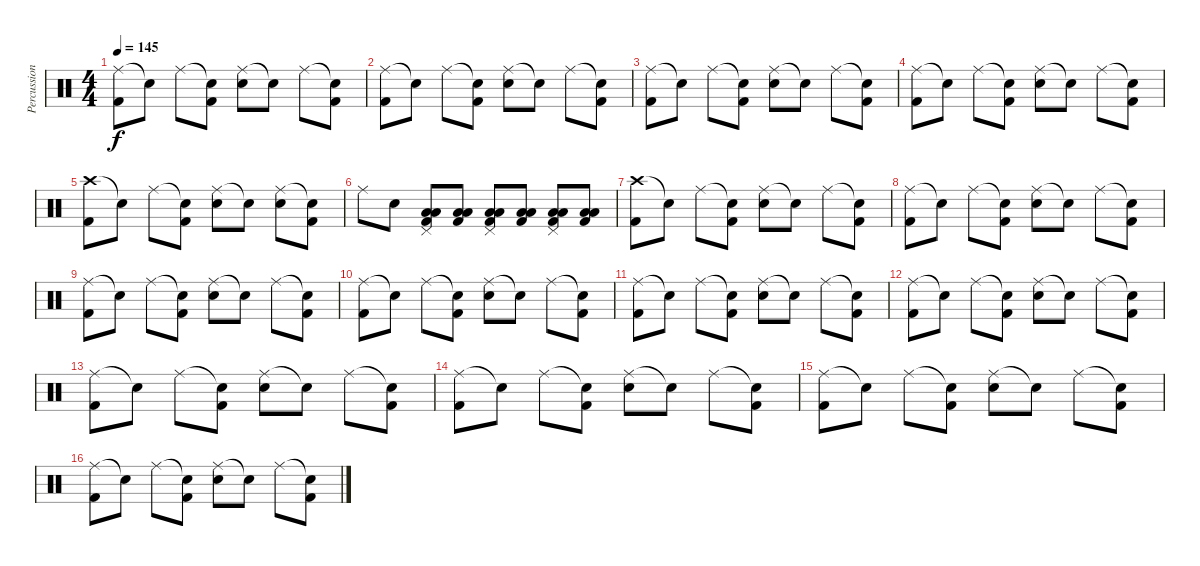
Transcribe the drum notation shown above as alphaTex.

\track ("Percussion" "Percussion") {instrument percussion}
\staff {score}
\articulation defaults
\ts (4 4)
\tempo 145
\clef neutral
\ks c
("Ride (middle)" "Kick (hit) 2").8{dy f} "Snare (hit)"{t}.8 "Ride (middle)".8 ("Snare (hit)"{t} "Kick (hit) 2").8 ("Ride (middle)" "Electric Snare (hit)").8 "Snare (hit)"{t}.8 "Ride (middle)".8 ("Snare (hit)"{t} "Kick (hit) 2").8 |
("Ride (middle)" "Kick (hit) 2").8 "Snare (hit)"{t}.8 "Ride (middle)".8 ("Snare (hit)"{t} "Kick (hit) 2").8 ("Ride (middle)" "Electric Snare (hit)").8 "Snare (hit)"{t}.8 "Ride (middle)".8 ("Snare (hit)"{t} "Kick (hit) 2").8 |
("Ride (middle)" "Kick (hit) 2").8 "Snare (hit)"{t}.8 "Ride (middle)".8 ("Snare (hit)"{t} "Kick (hit) 2").8 ("Ride (middle)" "Electric Snare (hit)").8 "Snare (hit)"{t}.8 "Ride (middle)".8 ("Snare (hit)"{t} "Kick (hit) 2").8 |
("Ride (middle)" "Kick (hit) 2").8 "Snare (hit)"{t}.8 "Ride (middle)".8 ("Snare (hit)"{t} "Kick (hit) 2").8 ("Ride (middle)" "Electric Snare (hit)").8 "Snare (hit)"{t}.8 "Ride (middle)".8 ("Snare (hit)"{t} "Kick (hit) 2").8 |
("Crash high (hit)" "Kick (hit) 2").8 "Snare (hit)"{t}.8 "Ride (middle)".8 ("Snare (hit)"{t} "Kick (hit) 2").8 ("Ride (middle)" "Electric Snare (hit)").8 "Snare (hit)"{t}.8 ("Ride (middle)" "Electric Snare (hit)").8 ("Snare (hit)"{t} "Kick (hit) 2").8 |
"Ride (middle)".8 "Electric Snare (hit)".8 ("Pedal Hi-Hat (hit)" "Low Tom (hit)" "Low Floor Tom (hit)" "Kick (hit) 2").8 ("Low Tom (hit)" "Low Floor Tom (hit)" "Kick (hit) 2").8 ("Pedal Hi-Hat (hit)" "Low Tom (hit)" "Low Floor Tom (hit)" "Kick (hit) 2").8 ("Low Tom (hit)" "Low Floor Tom (hit)" "Kick (hit) 2").8 ("Pedal Hi-Hat (hit)" "Low Tom (hit)" "Low Floor Tom (hit)" "Kick (hit) 2").8 ("Low Tom (hit)" "Low Floor Tom (hit)" "Kick (hit) 2").8 |
("Crash high (hit)" "Kick (hit) 2").8 "Snare (hit)"{t}.8 "Ride (middle)".8 ("Snare (hit)"{t} "Kick (hit) 2").8 ("Ride (middle)" "Electric Snare (hit)").8 "Snare (hit)"{t}.8 "Ride (middle)".8 ("Snare (hit)"{t} "Kick (hit) 2").8 |
("Ride (middle)" "Kick (hit) 2").8 "Snare (hit)"{t}.8 "Ride (middle)".8 ("Snare (hit)"{t} "Kick (hit) 2").8 ("Ride (middle)" "Electric Snare (hit)").8 "Snare (hit)"{t}.8 "Ride (middle)".8 ("Snare (hit)"{t} "Kick (hit) 2").8 |
("Ride (middle)" "Kick (hit) 2").8 "Snare (hit)"{t}.8 "Ride (middle)".8 ("Snare (hit)"{t} "Kick (hit) 2").8 ("Ride (middle)" "Electric Snare (hit)").8 "Snare (hit)"{t}.8 "Ride (middle)".8 ("Snare (hit)"{t} "Kick (hit) 2").8 |
("Ride (middle)" "Kick (hit) 2").8 "Snare (hit)"{t}.8 "Ride (middle)".8 ("Snare (hit)"{t} "Kick (hit) 2").8 ("Ride (middle)" "Electric Snare (hit)").8 "Snare (hit)"{t}.8 "Ride (middle)".8 ("Snare (hit)"{t} "Kick (hit) 2").8 |
("Ride (middle)" "Kick (hit) 2").8 "Snare (hit)"{t}.8 "Ride (middle)".8 ("Snare (hit)"{t} "Kick (hit) 2").8 ("Ride (middle)" "Electric Snare (hit)").8 "Snare (hit)"{t}.8 "Ride (middle)".8 ("Snare (hit)"{t} "Kick (hit) 2").8 |
("Ride (middle)" "Kick (hit) 2").8 "Snare (hit)"{t}.8 "Ride (middle)".8 ("Snare (hit)"{t} "Kick (hit) 2").8 ("Ride (middle)" "Electric Snare (hit)").8 "Snare (hit)"{t}.8 "Ride (middle)".8 ("Snare (hit)"{t} "Kick (hit) 2").8 |
("Ride (middle)" "Kick (hit) 2").8 "Snare (hit)"{t}.8 "Ride (middle)".8 ("Snare (hit)"{t} "Kick (hit) 2").8 ("Ride (middle)" "Electric Snare (hit)").8 "Snare (hit)"{t}.8 "Ride (middle)".8 ("Snare (hit)"{t} "Kick (hit) 2").8 |
("Ride (middle)" "Kick (hit) 2").8 "Snare (hit)"{t}.8 "Ride (middle)".8 ("Snare (hit)"{t} "Kick (hit) 2").8 ("Ride (middle)" "Electric Snare (hit)").8 "Snare (hit)"{t}.8 "Ride (middle)".8 ("Snare (hit)"{t} "Kick (hit) 2").8 |
("Ride (middle)" "Kick (hit) 2").8 "Snare (hit)"{t}.8 "Ride (middle)".8 ("Snare (hit)"{t} "Kick (hit) 2").8 ("Ride (middle)" "Electric Snare (hit)").8 "Snare (hit)"{t}.8 "Ride (middle)".8 ("Snare (hit)"{t} "Kick (hit) 2").8 |
("Ride (middle)" "Kick (hit) 2").8 "Snare (hit)"{t}.8 "Ride (middle)".8 ("Snare (hit)"{t} "Kick (hit) 2").8 ("Ride (middle)" "Electric Snare (hit)").8 "Snare (hit)"{t}.8 "Ride (middle)".8 ("Snare (hit)"{t} "Kick (hit) 2").8
